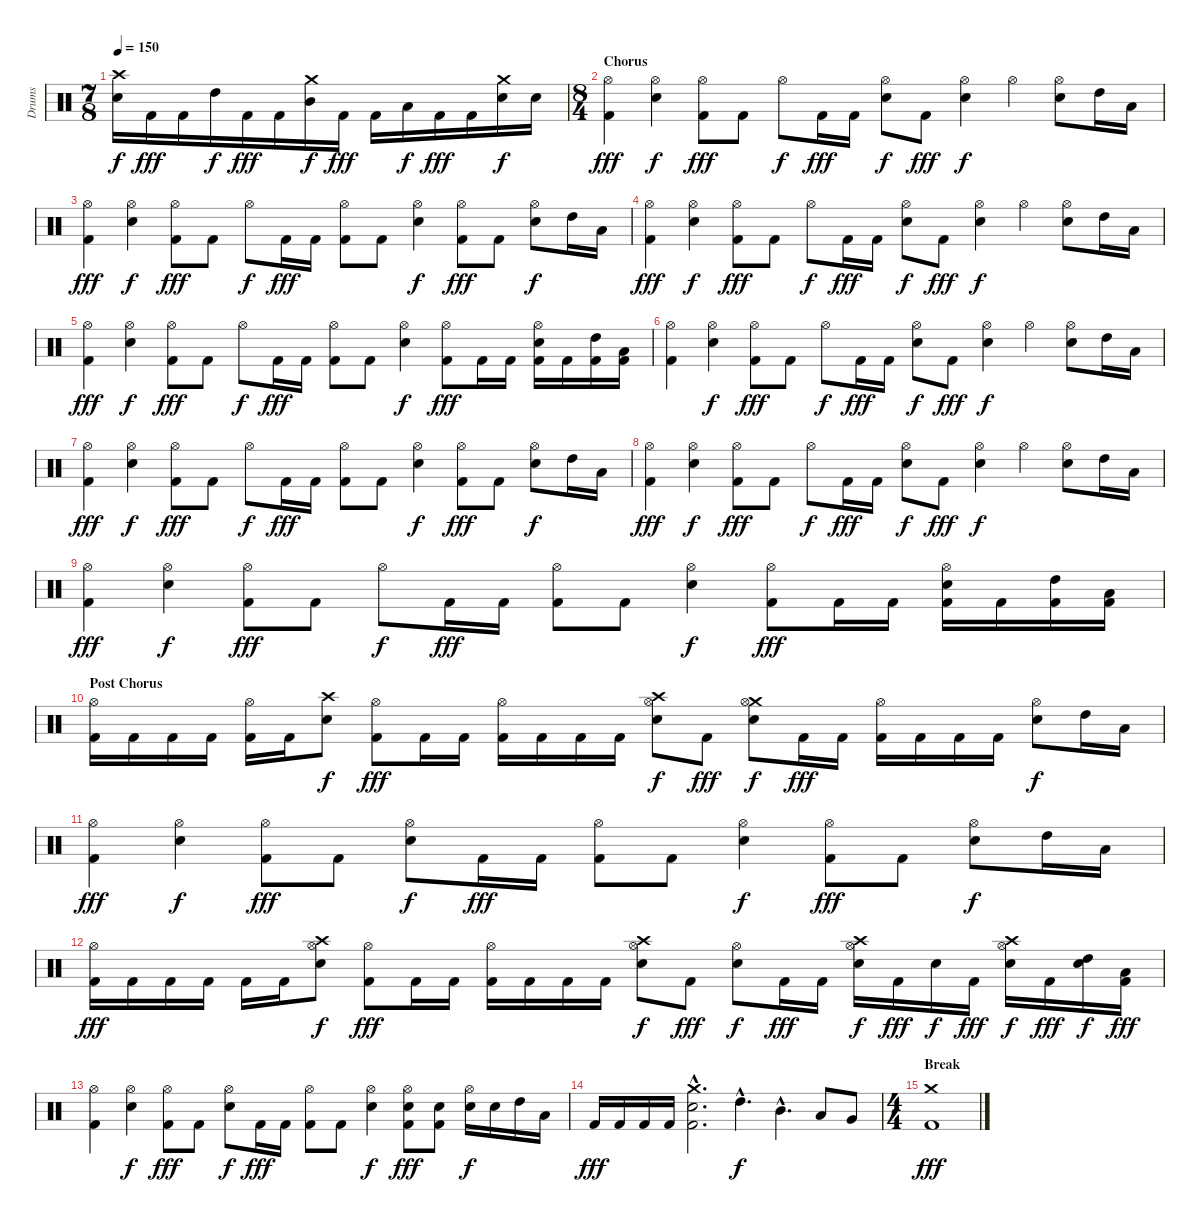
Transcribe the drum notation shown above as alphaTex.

\track ("Drums" "Drums") {instrument percussion}
\staff {score}
\articulation defaults
\ts (7 8)
\tempo 150
\clef neutral
\ks c
("Crash high (hit)" "Electric Snare (hit)").16{dy f} "Kick (hit) 2".16{dy fff} "Kick (hit) 2".16 "High Tom (hit)".16{dy f} "Kick (hit) 2".16{dy fff} "Kick (hit) 2".16 ("Crash medium (hit)" "Mid Tom (hit)").16{dy f} "Kick (hit) 2".16{dy fff} "Kick (hit) 2".16 "Low Tom (hit)".16{dy f} "Kick (hit) 2".16{dy fff} "Kick (hit) 2".16 ("Crash medium (hit)" "Electric Snare (hit)").16{dy f} "Electric Snare (hit)".16 |
\ts (8 4)
\section ("" "Chorus")
("Hi-Hat (open)" "Kick (hit) 2").4{dy fff} ("Hi-Hat (open)" "Electric Snare (hit)").4{dy f} ("Hi-Hat (open)" "Kick (hit) 2").8{dy fff} "Kick (hit) 2".8 "Hi-Hat (open)".8{dy f} "Kick (hit) 2".16{dy fff} "Kick (hit) 2".16 ("Hi-Hat (open)" "Electric Snare (hit)").8{dy f} "Kick (hit) 2".8{dy fff} ("Hi-Hat (open)" "Electric Snare (hit)").4{dy f} "Hi-Hat (open)".4 ("Hi-Hat (open)" "Electric Snare (hit)").8 "High Tom (hit)".16 "Low Tom (hit)".16 |
("Hi-Hat (open)" "Kick (hit) 2").4{dy fff} ("Hi-Hat (open)" "Electric Snare (hit)").4{dy f} ("Hi-Hat (open)" "Kick (hit) 2").8{dy fff} "Kick (hit) 2".8 "Hi-Hat (open)".8{dy f} "Kick (hit) 2".16{dy fff} "Kick (hit) 2".16 ("Hi-Hat (open)" "Kick (hit) 2").8 "Kick (hit) 2".8 ("Hi-Hat (open)" "Electric Snare (hit)").4{dy f} ("Hi-Hat (open)" "Kick (hit) 2").8{dy fff} "Kick (hit) 2".8 ("Hi-Hat (open)" "Electric Snare (hit)").8{dy f} "High Tom (hit)".16 "Low Tom (hit)".16 |
("Hi-Hat (open)" "Kick (hit) 2").4{dy fff} ("Hi-Hat (open)" "Electric Snare (hit)").4{dy f} ("Hi-Hat (open)" "Kick (hit) 2").8{dy fff} "Kick (hit) 2".8 "Hi-Hat (open)".8{dy f} "Kick (hit) 2".16{dy fff} "Kick (hit) 2".16 ("Hi-Hat (open)" "Electric Snare (hit)").8{dy f} "Kick (hit) 2".8{dy fff} ("Hi-Hat (open)" "Electric Snare (hit)").4{dy f} "Hi-Hat (open)".4 ("Hi-Hat (open)" "Electric Snare (hit)").8 "High Tom (hit)".16 "Low Tom (hit)".16 |
("Hi-Hat (open)" "Kick (hit) 2").4{dy fff} ("Hi-Hat (open)" "Electric Snare (hit)").4{dy f} ("Hi-Hat (open)" "Kick (hit) 2").8{dy fff} "Kick (hit) 2".8 "Hi-Hat (open)".8{dy f} "Kick (hit) 2".16{dy fff} "Kick (hit) 2".16 ("Hi-Hat (open)" "Kick (hit) 2").8 "Kick (hit) 2".8 ("Hi-Hat (open)" "Electric Snare (hit)").4{dy f} ("Hi-Hat (open)" "Kick (hit) 2").8{dy fff} "Kick (hit) 2".16 "Kick (hit) 2".16 ("Hi-Hat (open)" "Electric Snare (hit)" "Kick (hit) 2").16 "Kick (hit) 2".16 ("High Tom (hit)" "Kick (hit) 2").16 ("Low Tom (hit)" "Kick (hit) 2").16 |
("Hi-Hat (open)" "Kick (hit) 2").4 ("Hi-Hat (open)" "Electric Snare (hit)").4{dy f} ("Hi-Hat (open)" "Kick (hit) 2").8{dy fff} "Kick (hit) 2".8 "Hi-Hat (open)".8{dy f} "Kick (hit) 2".16{dy fff} "Kick (hit) 2".16 ("Hi-Hat (open)" "Electric Snare (hit)").8{dy f} "Kick (hit) 2".8{dy fff} ("Hi-Hat (open)" "Electric Snare (hit)").4{dy f} "Hi-Hat (open)".4 ("Hi-Hat (open)" "Electric Snare (hit)").8 "High Tom (hit)".16 "Low Tom (hit)".16 |
("Hi-Hat (open)" "Kick (hit) 2").4{dy fff} ("Hi-Hat (open)" "Electric Snare (hit)").4{dy f} ("Hi-Hat (open)" "Kick (hit) 2").8{dy fff} "Kick (hit) 2".8 "Hi-Hat (open)".8{dy f} "Kick (hit) 2".16{dy fff} "Kick (hit) 2".16 ("Hi-Hat (open)" "Kick (hit) 2").8 "Kick (hit) 2".8 ("Hi-Hat (open)" "Electric Snare (hit)").4{dy f} ("Hi-Hat (open)" "Kick (hit) 2").8{dy fff} "Kick (hit) 2".8 ("Hi-Hat (open)" "Electric Snare (hit)").8{dy f} "High Tom (hit)".16 "Low Tom (hit)".16 |
("Hi-Hat (open)" "Kick (hit) 2").4{dy fff} ("Hi-Hat (open)" "Electric Snare (hit)").4{dy f} ("Hi-Hat (open)" "Kick (hit) 2").8{dy fff} "Kick (hit) 2".8 "Hi-Hat (open)".8{dy f} "Kick (hit) 2".16{dy fff} "Kick (hit) 2".16 ("Hi-Hat (open)" "Electric Snare (hit)").8{dy f} "Kick (hit) 2".8{dy fff} ("Hi-Hat (open)" "Electric Snare (hit)").4{dy f} "Hi-Hat (open)".4 ("Hi-Hat (open)" "Electric Snare (hit)").8 "High Tom (hit)".16 "Low Tom (hit)".16 |
("Hi-Hat (open)" "Kick (hit) 2").4{dy fff} ("Hi-Hat (open)" "Electric Snare (hit)").4{dy f} ("Hi-Hat (open)" "Kick (hit) 2").8{dy fff} "Kick (hit) 2".8 "Hi-Hat (open)".8{dy f} "Kick (hit) 2".16{dy fff} "Kick (hit) 2".16 ("Hi-Hat (open)" "Kick (hit) 2").8 "Kick (hit) 2".8 ("Hi-Hat (open)" "Electric Snare (hit)").4{dy f} ("Hi-Hat (open)" "Kick (hit) 2").8{dy fff} "Kick (hit) 2".16 "Kick (hit) 2".16 ("Hi-Hat (open)" "Electric Snare (hit)" "Kick (hit) 2").16 "Kick (hit) 2".16 ("High Tom (hit)" "Kick (hit) 2").16 ("Low Tom (hit)" "Kick (hit) 2").16 |
\section ("" "Post Chorus")
("Hi-Hat (open)" "Kick (hit) 2").16 "Kick (hit) 2".16 "Kick (hit) 2".16 "Kick (hit) 2".16 ("Hi-Hat (open)" "Kick (hit) 2").16 "Kick (hit) 2".16 ("Crash high (hit)" "Electric Snare (hit)").8{dy f} ("Hi-Hat (open)" "Kick (hit) 2").8{dy fff} "Kick (hit) 2".16 "Kick (hit) 2".16 ("Hi-Hat (open)" "Kick (hit) 2").16 "Kick (hit) 2".16 "Kick (hit) 2".16 "Kick (hit) 2".16 ("Crash high (hit)" "Hi-Hat (open)" "Electric Snare (hit)").8{dy f} "Kick (hit) 2".8{dy fff} ("Crash medium (hit)" "Hi-Hat (open)" "Electric Snare (hit)").8{dy f} "Kick (hit) 2".16{dy fff} "Kick (hit) 2".16 ("Hi-Hat (open)" "Kick (hit) 2").16 "Kick (hit) 2".16 "Kick (hit) 2".16 "Kick (hit) 2".16 ("Hi-Hat (open)" "Electric Snare (hit)").8{dy f} "High Tom (hit)".16 "Low Tom (hit)".16 |
("Hi-Hat (open)" "Kick (hit) 2").4{dy fff} ("Hi-Hat (open)" "Electric Snare (hit)").4{dy f} ("Hi-Hat (open)" "Kick (hit) 2").8{dy fff} "Kick (hit) 2".8 ("Hi-Hat (open)" "Electric Snare (hit)").8{dy f} "Kick (hit) 2".16{dy fff} "Kick (hit) 2".16 ("Hi-Hat (open)" "Kick (hit) 2").8 "Kick (hit) 2".8 ("Hi-Hat (open)" "Electric Snare (hit)").4{dy f} ("Hi-Hat (open)" "Kick (hit) 2").8{dy fff} "Kick (hit) 2".8 ("Hi-Hat (open)" "Electric Snare (hit)").8{dy f} "High Tom (hit)".16 "Low Tom (hit)".16 |
("Hi-Hat (open)" "Kick (hit) 2").16{dy fff} "Kick (hit) 2".16 "Kick (hit) 2".16 "Kick (hit) 2".16 "Kick (hit) 2".16 "Kick (hit) 2".16 ("Crash high (hit)" "Hi-Hat (open)" "Electric Snare (hit)").8{dy f} ("Hi-Hat (open)" "Kick (hit) 2").8{dy fff} "Kick (hit) 2".16 "Kick (hit) 2".16 ("Hi-Hat (open)" "Kick (hit) 2").16 "Kick (hit) 2".16 "Kick (hit) 2".16 "Kick (hit) 2".16 ("Crash high (hit)" "Hi-Hat (open)" "Electric Snare (hit)").8{dy f} "Kick (hit) 2".8{dy fff} ("Hi-Hat (open)" "Electric Snare (hit)").8{dy f} "Kick (hit) 2".16{dy fff} "Kick (hit) 2".16 ("Crash high (hit)" "Hi-Hat (open)" "Electric Snare (hit)").16{dy f} "Kick (hit) 2".16{dy fff} "Electric Snare (hit)".16{dy f} "Kick (hit) 2".16{dy fff} ("Crash high (hit)" "Hi-Hat (open)" "Electric Snare (hit)").16{dy f} "Kick (hit) 2".16{dy fff} ("High Tom (hit)" "Electric Snare (hit)").16{dy f} ("Low Tom (hit)" "Kick (hit) 2").16{dy fff} |
("Hi-Hat (open)" "Kick (hit) 2").4 ("Hi-Hat (open)" "Electric Snare (hit)").4{dy f} ("Hi-Hat (open)" "Kick (hit) 2").8{dy fff} "Kick (hit) 2".8 ("Hi-Hat (open)" "Electric Snare (hit)").8{dy f} "Kick (hit) 2".16{dy fff} "Kick (hit) 2".16 ("Hi-Hat (open)" "Kick (hit) 2").8 "Kick (hit) 2".8 ("Hi-Hat (open)" "Electric Snare (hit)").4{dy f} ("Hi-Hat (open)" "Electric Snare (hit)" "Kick (hit) 2").8{dy fff} ("Electric Snare (hit)" "Kick (hit) 2").8 ("Hi-Hat (open)" "Electric Snare (hit)").16{dy f} "Electric Snare (hit)".16 "High Tom (hit)".16 "Low Tom (hit)".16 |
"Kick (hit) 2".16{dy fff} "Kick (hit) 2".16 "Kick (hit) 2".16 "Kick (hit) 2".16 ("Crash medium (hit)"{hac} "Electric Snare (hit)"{hac} "Kick (hit) 2"{hac}).2{d} "High Tom (hit)"{hac}.4{d dy f} "Mid Tom (hit)"{hac}.4{d} "Low Tom (hit)".8 "Very Low Tom (hit)".8 |
\ts (4 4)
\section ("" "Break")
("Crash medium (hit)" "Kick (hit) 2").1{dy fff}
